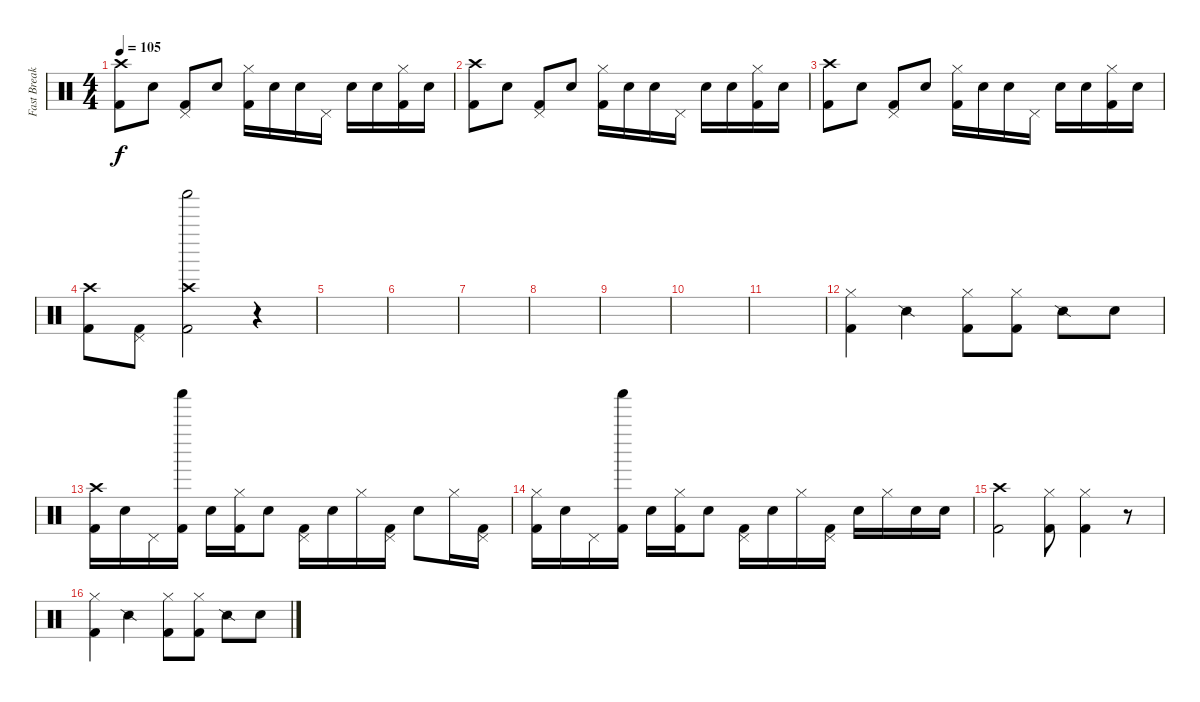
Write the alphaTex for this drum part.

\track ("Fast Break Drums" "Fast Break") {instrument percussion}
\staff {score}
\articulation defaults
\ts (4 4)
\tempo 105
\clef neutral
\ks c
("Kick (hit) 2" "Crash high (hit)").8{dy f} "Electric Snare (hit)".8 ("Kick (hit) 2" "Pedal Hi-Hat (hit)").8 "Snare (hit) 2".8 ("Kick (hit) 2" "Hi-Hat (closed)").16 "Electric Snare (hit)".16 "Snare (hit) 2".16 "Pedal Hi-Hat (hit)".16 "Snare (hit) 2".16 "Electric Snare (hit)".16 ("Kick (hit) 2" "Hi-Hat (closed)").16 "Electric Snare (hit)".16 |
("Kick (hit) 2" "Crash high (hit)").8 "Electric Snare (hit)".8 ("Kick (hit) 2" "Pedal Hi-Hat (hit)").8 "Snare (hit) 2".8 ("Kick (hit) 2" "Hi-Hat (closed)").16 "Electric Snare (hit)".16 "Snare (hit) 2".16 "Pedal Hi-Hat (hit)".16 "Snare (hit) 2".16 "Electric Snare (hit)".16 ("Kick (hit) 2" "Hi-Hat (closed)").16 "Electric Snare (hit)".16 |
("Kick (hit) 2" "Crash high (hit)").8 "Electric Snare (hit)".8 ("Kick (hit) 2" "Pedal Hi-Hat (hit)").8 "Snare (hit) 2".8 ("Kick (hit) 2" "Hi-Hat (closed)").16 "Electric Snare (hit)".16 "Snare (hit) 2".16 "Pedal Hi-Hat (hit)".16 "Snare (hit) 2".16 "Electric Snare (hit)".16 ("Kick (hit) 2" "Hi-Hat (closed)").16 "Electric Snare (hit)".16 |
("Kick (hit) 2" "Crash high (hit)").8 ("Kick (hit) 2" "Pedal Hi-Hat (hit)").8 ("Kick (hit) 2" "Shaker (hit)" "Crash high (hit)").2 r.4 |
|
|
|
|
|
|
|
("Kick (hit) 2" "Hi-Hat (closed)").4 "Snare (side stick) 2".4 ("Kick (hit) 2" "Hi-Hat (closed)").8 ("Kick (hit) 2" "Hi-Hat (closed)").8 "Snare (side stick) 2".8 "Snare (hit) 2".8 |
("Kick (hit) 2" "Crash high (hit)").16 "Electric Snare (hit)".16 "Pedal Hi-Hat (hit)".16 ("Kick (hit) 2" "Shaker (hit)").16 "Snare (hit) 2".16 ("Kick (hit) 2" "Hi-Hat (closed)").16 "Snare (hit) 2".8 ("Kick (hit) 2" "Pedal Hi-Hat (hit)").16 "Electric Snare (hit)".16 "Hi-Hat (closed)".16 ("Kick (hit) 2" "Pedal Hi-Hat (hit)").16 "Snare (hit) 2".8 "Hi-Hat (closed)".16 ("Kick (hit) 2" "Pedal Hi-Hat (hit)").16 |
("Kick (hit) 2" "Hi-Hat (closed)").16 "Electric Snare (hit)".16 "Pedal Hi-Hat (hit)".16 ("Kick (hit) 2" "Shaker (hit)").16 "Snare (hit) 2".16 ("Kick (hit) 2" "Hi-Hat (closed)").16 "Snare (hit) 2".8 ("Kick (hit) 2" "Pedal Hi-Hat (hit)").16 "Electric Snare (hit)".16 "Hi-Hat (closed)".16 ("Kick (hit) 2" "Pedal Hi-Hat (hit)").16 "Snare (hit) 2".16 "Hi-Hat (closed)".16 "Snare (hit) 2".16 "Electric Snare (hit)".16 |
("Kick (hit) 2" "Crash high (hit)").2 ("Kick (hit) 2" "Hi-Hat (closed)").8 ("Kick (hit) 2" "Hi-Hat (closed)").4 r.8 |
("Kick (hit) 2" "Hi-Hat (closed)").4 "Snare (side stick) 2".4 ("Kick (hit) 2" "Hi-Hat (closed)").8 ("Kick (hit) 2" "Hi-Hat (closed)").8 "Snare (side stick) 2".8 "Snare (hit) 2".8
